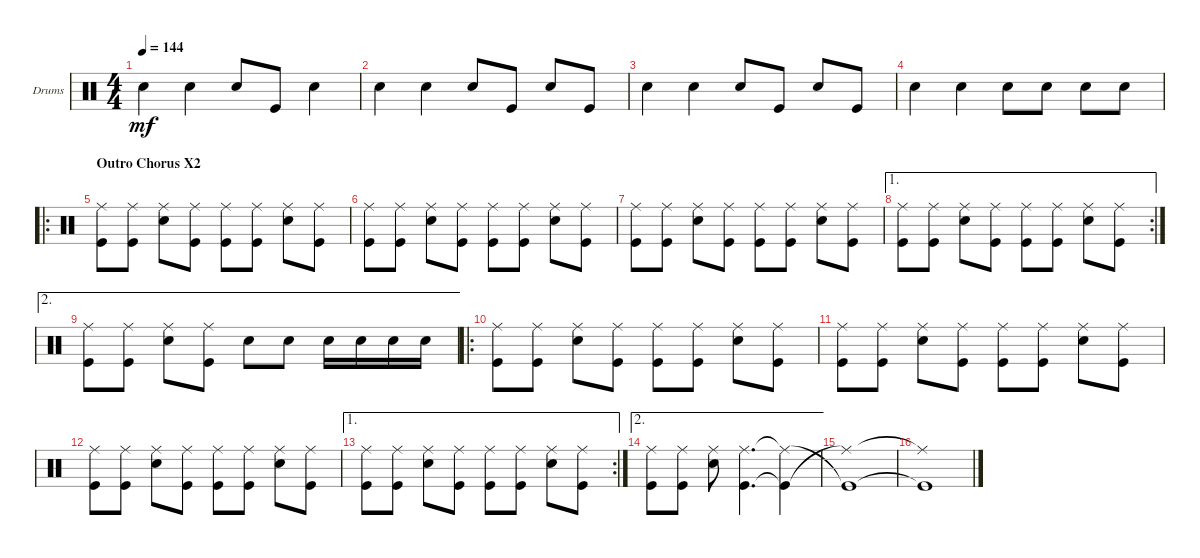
\defaultSystemsLayout 4
\bracketExtendMode groupsimilarinstruments
\firstSystemTrackNameOrientation horizontal
\otherSystemsTrackNameOrientation horizontal
\track ("Fabrizio Moretti" "Drums") {instrument percussion}
\staff {score}
\articulation defaults
\ts (4 4)
\tempo 144
\clef neutral
\ks c "Snare (hit) 2".4{dy mf} "Snare (hit) 2".4 "Snare (hit) 2".8 "Kick (hit)".8 "Snare (hit) 2".4
|
"Snare (hit) 2".4 "Snare (hit) 2".4 "Snare (hit) 2".8 "Kick (hit)".8 "Snare (hit) 2".8 "Kick (hit)".8 |
"Snare (hit) 2".4 "Snare (hit) 2".4 "Snare (hit) 2".8 "Kick (hit)".8 "Snare (hit) 2".8 "Kick (hit)".8 |
"Snare (hit) 2".4 "Snare (hit) 2".4 "Snare (hit) 2".8 "Snare (hit) 2".8 "Snare (hit) 2".8 "Snare (hit) 2".8 |
\ro
\section ("" "Outro Chorus X2")
("Kick (hit)" "Ride (middle)").8 ("Kick (hit)" "Ride (middle)").8 ("Snare (hit) 2" "Ride (middle)").8 ("Kick (hit)" "Ride (middle)").8 ("Kick (hit)" "Ride (middle)").8 ("Kick (hit)" "Ride (middle)").8 ("Snare (hit) 2" "Ride (middle)").8 ("Kick (hit)" "Ride (middle)").8 |
("Kick (hit)" "Ride (middle)").8 ("Kick (hit)" "Ride (middle)").8 ("Snare (hit) 2" "Ride (middle)").8 ("Kick (hit)" "Ride (middle)").8 ("Kick (hit)" "Ride (middle)").8 ("Kick (hit)" "Ride (middle)").8 ("Snare (hit) 2" "Ride (middle)").8 ("Kick (hit)" "Ride (middle)").8 |
("Kick (hit)" "Ride (middle)").8 ("Kick (hit)" "Ride (middle)").8 ("Snare (hit) 2" "Ride (middle)").8 ("Kick (hit)" "Ride (middle)").8 ("Kick (hit)" "Ride (middle)").8 ("Kick (hit)" "Ride (middle)").8 ("Snare (hit) 2" "Ride (middle)").8 ("Kick (hit)" "Ride (middle)").8 |
\ae 1
\rc 2
("Kick (hit)" "Ride (middle)").8 ("Kick (hit)" "Ride (middle)").8 ("Snare (hit) 2" "Ride (middle)").8 ("Kick (hit)" "Ride (middle)").8 ("Kick (hit)" "Ride (middle)").8 ("Kick (hit)" "Ride (middle)").8 ("Snare (hit) 2" "Ride (middle)").8 ("Kick (hit)" "Ride (middle)").8 |
\ae 2
("Kick (hit)" "Ride (middle)").8 ("Kick (hit)" "Ride (middle)").8 ("Snare (hit) 2" "Ride (middle)").8 ("Kick (hit)" "Ride (middle)").8 "Snare (hit) 2".8 "Snare (hit) 2".8 "Snare (hit) 2".16 "Snare (hit) 2".16 "Snare (hit) 2".16 "Snare (hit) 2".16 |
\ro
("Kick (hit)" "Ride (middle)").8 ("Kick (hit)" "Ride (middle)").8 ("Snare (hit) 2" "Ride (middle)").8 ("Kick (hit)" "Ride (middle)").8 ("Kick (hit)" "Ride (middle)").8 ("Kick (hit)" "Ride (middle)").8 ("Snare (hit) 2" "Ride (middle)").8 ("Kick (hit)" "Ride (middle)").8 |
("Kick (hit)" "Ride (middle)").8 ("Kick (hit)" "Ride (middle)").8 ("Snare (hit) 2" "Ride (middle)").8 ("Kick (hit)" "Ride (middle)").8 ("Kick (hit)" "Ride (middle)").8 ("Kick (hit)" "Ride (middle)").8 ("Snare (hit) 2" "Ride (middle)").8 ("Kick (hit)" "Ride (middle)").8 |
("Kick (hit)" "Ride (middle)").8 ("Kick (hit)" "Ride (middle)").8 ("Snare (hit) 2" "Ride (middle)").8 ("Kick (hit)" "Ride (middle)").8 ("Kick (hit)" "Ride (middle)").8 ("Kick (hit)" "Ride (middle)").8 ("Snare (hit) 2" "Ride (middle)").8 ("Kick (hit)" "Ride (middle)").8 |
\ae 1
\rc 2
("Kick (hit)" "Ride (middle)").8 ("Kick (hit)" "Ride (middle)").8 ("Snare (hit) 2" "Ride (middle)").8 ("Kick (hit)" "Ride (middle)").8 ("Kick (hit)" "Ride (middle)").8 ("Kick (hit)" "Ride (middle)").8 ("Snare (hit) 2" "Ride (middle)").8 ("Kick (hit)" "Ride (middle)").8 |
\ae 2
("Kick (hit)" "Ride (middle)").8 ("Kick (hit)" "Ride (middle)").8 ("Snare (hit) 2" "Ride (middle)").8 ("Kick (hit)" "Ride (middle)").4{d} ("Kick (hit)"{t} "Ride (middle)"{t}).4 |
("Ride (middle)"{t} "Kick (hit)"{t}).1 |
("Ride (middle)"{t} "Kick (hit)"{t}).1
